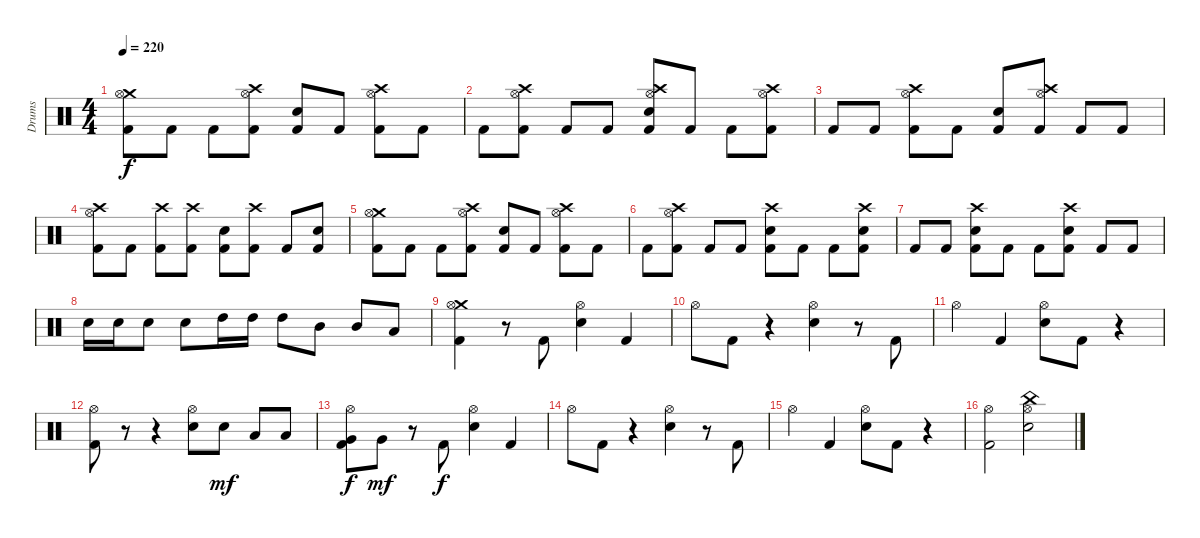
\bracketExtendMode groupsimilarinstruments
\otherSystemsTrackNameOrientation horizontal
\track ("Drumkit" "Drums") {instrument percussion}
\staff {score}
\articulation defaults
\ts (4 4)
\tempo 220
\clef neutral
\ks c
("Crash medium (hit)" "Hi-Hat (open)" "Kick (hit) 2").8{dy f beam Down} "Kick (hit) 2".8{beam Down} "Kick (hit) 2".8{beam Down} ("Crash high (hit)" "Hi-Hat (open)" "Kick (hit) 2").8{beam Down} ("Snare (hit) 2" "Kick (hit) 2").8{beam Up} "Kick (hit) 2".8{beam Up} ("Crash high (hit)" "Hi-Hat (open)" "Kick (hit) 2").8{beam Down} "Kick (hit) 2".8{beam Down} |
"Kick (hit) 2".8{beam Down} ("Crash high (hit)" "Hi-Hat (open)" "Kick (hit) 2").8{beam Down} "Kick (hit) 2".8{beam Up} "Kick (hit) 2".8{beam Up} ("Crash high (hit)" "Hi-Hat (open)" "Snare (hit) 2" "Kick (hit) 2").8{beam Up} "Kick (hit) 2".8{beam Up} "Kick (hit) 2".8{beam Down} ("Crash high (hit)" "Hi-Hat (open)" "Kick (hit) 2").8{beam Down} |
"Kick (hit) 2".8{beam Up} "Kick (hit) 2".8{beam Up} ("Crash high (hit)" "Hi-Hat (open)" "Kick (hit) 2").8{beam Down} "Kick (hit) 2".8{beam Down} ("Snare (hit) 2" "Kick (hit) 2").8{beam Up} ("Crash high (hit)" "Hi-Hat (open)" "Kick (hit) 2").8{beam Up} "Kick (hit) 2".8{beam Up} "Kick (hit) 2".8{beam Up} |
("Crash high (hit)" "Hi-Hat (open)" "Kick (hit) 2").8{beam Down} "Kick (hit) 2".8{beam Down} ("Crash high (hit)" "Kick (hit) 2").8{beam Down} ("Crash high (hit)" "Kick (hit) 2").8{beam Down} ("Snare (hit) 2" "Kick (hit) 2").8{beam Down} ("Crash high (hit)" "Kick (hit) 2").8{beam Down} "Kick (hit) 2".8{beam Up} ("Snare (hit) 2" "Kick (hit) 2").8{beam Up} |
("Crash medium (hit)" "Hi-Hat (open)" "Kick (hit) 2").8{beam Down} "Kick (hit) 2".8{beam Down} "Kick (hit) 2".8{beam Down} ("Crash high (hit)" "Hi-Hat (open)" "Kick (hit) 2").8{beam Down} ("Snare (hit) 2" "Kick (hit) 2").8{beam Up} "Kick (hit) 2".8{beam Up} ("Crash high (hit)" "Hi-Hat (open)" "Kick (hit) 2").8{beam Down} "Kick (hit) 2".8{beam Down} |
"Kick (hit) 2".8{beam Down} ("Crash high (hit)" "Hi-Hat (open)" "Kick (hit) 2").8{beam Down} "Kick (hit) 2".8{beam Up} "Kick (hit) 2".8{beam Up} ("Crash high (hit)" "Snare (hit) 2" "Kick (hit) 2").8{beam Down} "Kick (hit) 2".8{beam Down} "Kick (hit) 2".8{beam Down} ("Crash high (hit)" "Snare (hit) 2" "Kick (hit) 2").8{beam Down} |
"Kick (hit) 2".8{beam Up} "Kick (hit) 2".8{beam Up} ("Crash high (hit)" "Snare (hit) 2" "Kick (hit) 2").8{beam Down} "Kick (hit) 2".8{beam Down} "Kick (hit) 2".8{beam Down} ("Crash high (hit)" "Snare (hit) 2" "Kick (hit) 2").8{beam Down} "Kick (hit) 2".8{beam Up} "Kick (hit) 2".8{beam Up} |
"Snare (hit) 2".16{beam Down} "Snare (hit) 2".16{beam Down} "Snare (hit) 2".8{beam Down} "Snare (hit) 2".8{beam Down} "High Tom (hit)".16{beam Down} "High Tom (hit)".16{beam Down} "High Tom (hit)".8{beam Down} "Mid Tom (hit)".8{beam Down} "Mid Tom (hit)".8{beam Up} "Low Tom (hit)".8{beam Up} |
("Crash medium (hit)" "Hi-Hat (open)" "Kick (hit) 2").4{beam Down} r.8{beam Down} "Kick (hit) 2".8{beam Up} ("Hi-Hat (open)" "Snare (hit) 2").4{beam Down} "Kick (hit) 2".4{beam Up} |
"Hi-Hat (open)".8{beam Down} "Kick (hit) 2".8{beam Down} r.4{beam Down} ("Hi-Hat (open)" "Snare (hit) 2").4{beam Down} r.8{beam Down} "Kick (hit) 2".8{beam Up} |
"Hi-Hat (open)".4{beam Down} "Kick (hit) 2".4{beam Up} ("Hi-Hat (open)" "Snare (hit) 2").8{beam Down} "Kick (hit) 2".8{beam Down} r.4{beam Down} |
("Hi-Hat (open)" "Kick (hit) 2").8{beam Down} r.8{beam Down} r.4{beam Down} ("Hi-Hat (open)" "Snare (hit) 2").8{beam Down} "Snare (hit) 2".8{dy mf beam Down} "Low Tom (hit)".8{beam Up} "Low Tom (hit)".8{beam Up} |
("Hi-Hat (open)" "Very Low Tom (hit)" "Kick (hit) 2").8{dy f beam Down} "Very Low Tom (hit)".8{dy mf beam Down} r.8{beam Down} "Kick (hit) 2".8{dy f beam Up} ("Hi-Hat (open)" "Snare (hit) 2").4{beam Down} "Kick (hit) 2".4{beam Up} |
"Hi-Hat (open)".8{beam Down} "Kick (hit) 2".8{beam Down} r.4{beam Down} ("Hi-Hat (open)" "Snare (hit) 2").4{beam Down} r.8{beam Down} "Kick (hit) 2".8{beam Up} |
"Hi-Hat (open)".4{beam Down} "Kick (hit) 2".4{beam Up} ("Hi-Hat (open)" "Snare (hit) 2").8{beam Down} "Kick (hit) 2".8{beam Down} r.4{beam Down} |
("Hi-Hat (open)" "Kick (hit) 2").2{beam Down} ("China (hit)" "Hi-Hat (open)" "Snare (hit) 2").2{beam Down}
